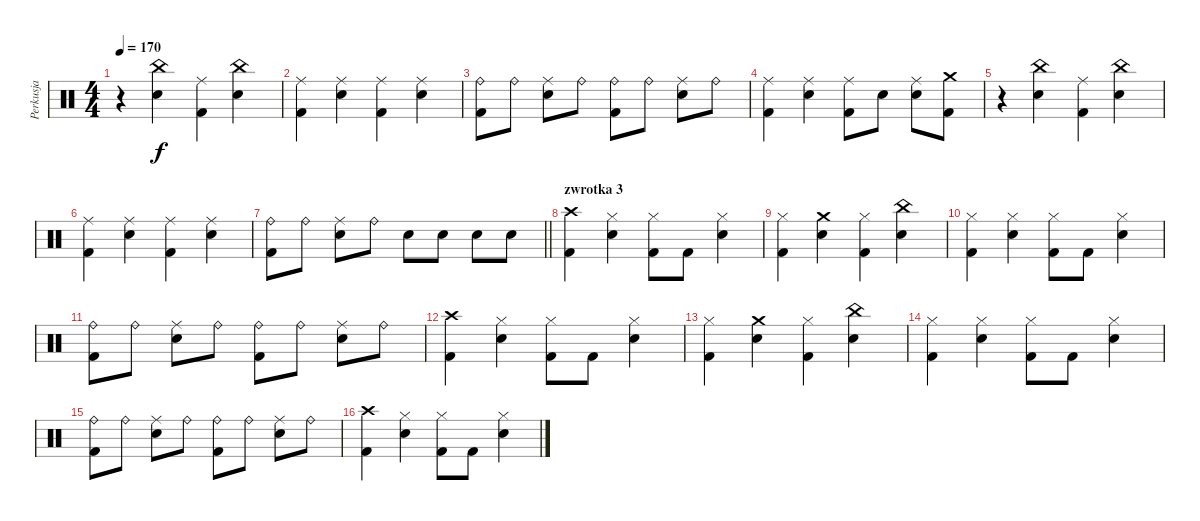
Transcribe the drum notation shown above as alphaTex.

\track ("Perkusja" "Perkusja") {instrument percussion}
\staff {score}
\articulation defaults
\ts (4 4)
\tempo 170
\clef neutral
\ks c
r.4{dy f} ("China (hit)" "Snare (hit) 2").4 ("Ride (middle)" "Kick (hit) 2").4 ("China (hit)" "Snare (hit) 2").4 |
("Ride (middle)" "Kick (hit) 2").4 ("Ride (middle)" "Snare (hit) 2").4 ("Ride (middle)" "Kick (hit) 2").4 ("Ride (middle)" "Snare (hit) 2").4 |
("Ride (bell)" "Kick (hit) 2").8 "Ride (bell)".8 ("Ride (middle)" "Snare (hit) 2").8 "Ride (bell)".8 ("Ride (bell)" "Kick (hit) 2").8 "Ride (bell)".8 ("Ride (middle)" "Snare (hit) 2").8 "Ride (bell)".8 |
("Ride (middle)" "Kick (hit) 2").4 ("Ride (middle)" "Snare (hit) 2").4 ("Ride (middle)" "Kick (hit) 2").8 "Snare (hit) 2".8 ("Ride (middle)" "Snare (hit) 2").8 ("Crash medium (hit)" "Kick (hit) 2").8 |
r.4 ("China (hit)" "Snare (hit) 2").4 ("Ride (middle)" "Kick (hit) 2").4 ("China (hit)" "Snare (hit) 2").4 |
("Ride (middle)" "Kick (hit) 2").4 ("Ride (middle)" "Snare (hit) 2").4 ("Ride (middle)" "Kick (hit) 2").4 ("Ride (middle)" "Snare (hit) 2").4 |
\barLineRight lightlight
("Ride (bell)" "Kick (hit) 2").8 "Ride (bell)".8 ("Ride (middle)" "Snare (hit) 2").8 "Ride (bell)".8 "Snare (hit) 2".8 "Snare (hit) 2".8 "Snare (hit) 2".8 "Snare (hit) 2".8 |
\section ("" "zwrotka 3")
("Crash high (hit)" "Kick (hit) 2").4 ("Hi-Hat (closed)" "Snare (hit) 2").4 ("Hi-Hat (closed)" "Kick (hit) 2").8 "Kick (hit) 2".8 ("Hi-Hat (closed)" "Snare (hit) 2").4 |
("Hi-Hat (closed)" "Kick (hit) 2").4 ("Crash medium (hit)" "Snare (hit) 2").4 ("Hi-Hat (closed)" "Kick (hit) 2").4 ("China (hit)" "Snare (hit) 2").4 |
("Hi-Hat (closed)" "Kick (hit) 2").4 ("Hi-Hat (closed)" "Snare (hit) 2").4 ("Hi-Hat (closed)" "Kick (hit) 2").8 "Kick (hit) 2".8 ("Hi-Hat (closed)" "Snare (hit) 2").4 |
("Ride (bell)" "Kick (hit) 2").8 "Ride (bell)".8 ("Ride (middle)" "Snare (hit) 2").8 "Ride (bell)".8 ("Ride (bell)" "Kick (hit) 2").8 "Ride (bell)".8 ("Ride (middle)" "Snare (hit) 2").8 "Ride (bell)".8 |
("Crash high (hit)" "Kick (hit) 2").4 ("Hi-Hat (closed)" "Snare (hit) 2").4 ("Hi-Hat (closed)" "Kick (hit) 2").8 "Kick (hit) 2".8 ("Hi-Hat (closed)" "Snare (hit) 2").4 |
("Hi-Hat (closed)" "Kick (hit) 2").4 ("Crash medium (hit)" "Snare (hit) 2").4 ("Hi-Hat (closed)" "Kick (hit) 2").4 ("China (hit)" "Snare (hit) 2").4 |
("Hi-Hat (closed)" "Kick (hit) 2").4 ("Hi-Hat (closed)" "Snare (hit) 2").4 ("Hi-Hat (closed)" "Kick (hit) 2").8 "Kick (hit) 2".8 ("Hi-Hat (closed)" "Snare (hit) 2").4 |
("Ride (bell)" "Kick (hit) 2").8 "Ride (bell)".8 ("Ride (middle)" "Snare (hit) 2").8 "Ride (bell)".8 ("Ride (bell)" "Kick (hit) 2").8 "Ride (bell)".8 ("Ride (middle)" "Snare (hit) 2").8 "Ride (bell)".8 |
("Crash high (hit)" "Kick (hit) 2").4 ("Hi-Hat (closed)" "Snare (hit) 2").4 ("Hi-Hat (closed)" "Kick (hit) 2").8 "Kick (hit) 2".8 ("Hi-Hat (closed)" "Snare (hit) 2").4
